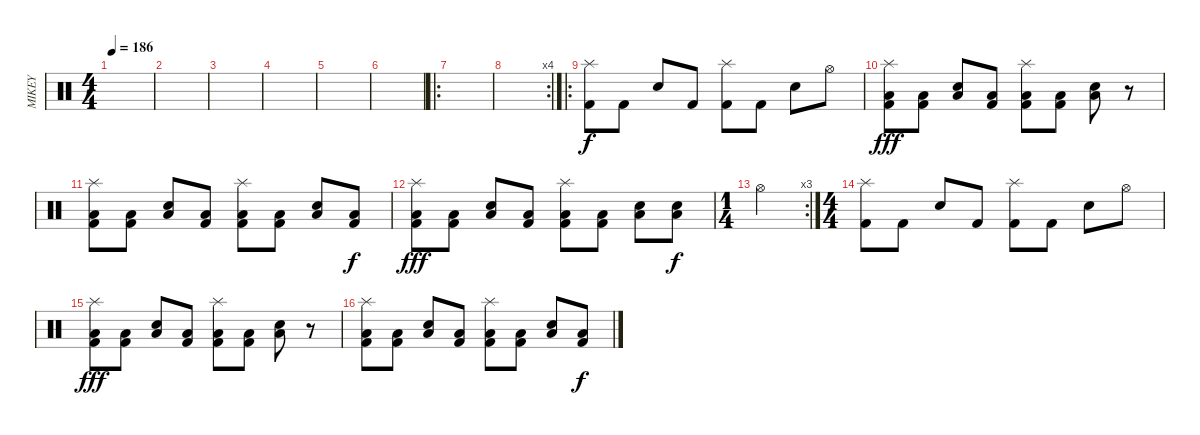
\track ("MIKEY" "MIKEY") {instrument percussion}
\staff {score}
\articulation defaults
\ts (4 4)
\tempo 186
\clef neutral
\ks c
|
|
|
|
|
|
\ro
|
\rc 4
|
\ro
("Splash (hit)" "Kick (hit) 2").8{dy f} "Kick (hit) 2".8 "Snare (hit) 2".8 "Kick (hit) 2".8 ("Splash (hit)" "Kick (hit) 2").8 "Kick (hit) 2".8 "Snare (hit) 2".8 "Hi-Hat (open)".8 |
("Low Floor Tom (hit)" "Splash (hit)" "Kick (hit) 2").8{dy fff} ("Low Floor Tom (hit)" "Kick (hit) 2").8 ("Low Floor Tom (hit)" "Snare (hit) 2").8 ("Low Floor Tom (hit)" "Kick (hit) 2").8 ("Low Floor Tom (hit)" "Splash (hit)" "Kick (hit) 2").8 ("Low Floor Tom (hit)" "Kick (hit) 2").8 ("Low Floor Tom (hit)" "Snare (hit) 2").8 r.8 |
("Low Floor Tom (hit)" "Splash (hit)" "Kick (hit) 2").8 ("Low Floor Tom (hit)" "Kick (hit) 2").8 ("Low Floor Tom (hit)" "Snare (hit) 2").8 ("Low Floor Tom (hit)" "Kick (hit) 2").8 ("Low Floor Tom (hit)" "Splash (hit)" "Kick (hit) 2").8 ("Low Floor Tom (hit)" "Kick (hit) 2").8 ("Low Floor Tom (hit)" "Snare (hit) 2").8 ("Low Floor Tom (hit)" "Kick (hit) 2").8{dy f} |
("Low Floor Tom (hit)" "Splash (hit)" "Kick (hit) 2").8{dy fff} ("Low Floor Tom (hit)" "Kick (hit) 2").8 ("Low Floor Tom (hit)" "Snare (hit) 2").8 ("Low Floor Tom (hit)" "Kick (hit) 2").8 ("Low Floor Tom (hit)" "Splash (hit)" "Kick (hit) 2").8 ("Low Floor Tom (hit)" "Kick (hit) 2").8 ("Low Floor Tom (hit)" "Snare (hit) 2").8 ("Low Floor Tom (hit)" "Snare (hit) 2").8{dy f} |
\rc 3
\ts (1 4)
"Hi-Hat (open)".4 |
\ts (4 4)
("Splash (hit)" "Kick (hit) 2").8 "Kick (hit) 2".8 "Snare (hit) 2".8 "Kick (hit) 2".8 ("Splash (hit)" "Kick (hit) 2").8 "Kick (hit) 2".8 "Snare (hit) 2".8 "Hi-Hat (open)".8 |
("Low Floor Tom (hit)" "Splash (hit)" "Kick (hit) 2").8{dy fff} ("Low Floor Tom (hit)" "Kick (hit) 2").8 ("Low Floor Tom (hit)" "Snare (hit) 2").8 ("Low Floor Tom (hit)" "Kick (hit) 2").8 ("Low Floor Tom (hit)" "Splash (hit)" "Kick (hit) 2").8 ("Low Floor Tom (hit)" "Kick (hit) 2").8 ("Low Floor Tom (hit)" "Snare (hit) 2").8 r.8 |
("Low Floor Tom (hit)" "Splash (hit)" "Kick (hit) 2").8 ("Low Floor Tom (hit)" "Kick (hit) 2").8 ("Low Floor Tom (hit)" "Snare (hit) 2").8 ("Low Floor Tom (hit)" "Kick (hit) 2").8 ("Low Floor Tom (hit)" "Splash (hit)" "Kick (hit) 2").8 ("Low Floor Tom (hit)" "Kick (hit) 2").8 ("Low Floor Tom (hit)" "Snare (hit) 2").8 ("Low Floor Tom (hit)" "Kick (hit) 2").8{dy f}
